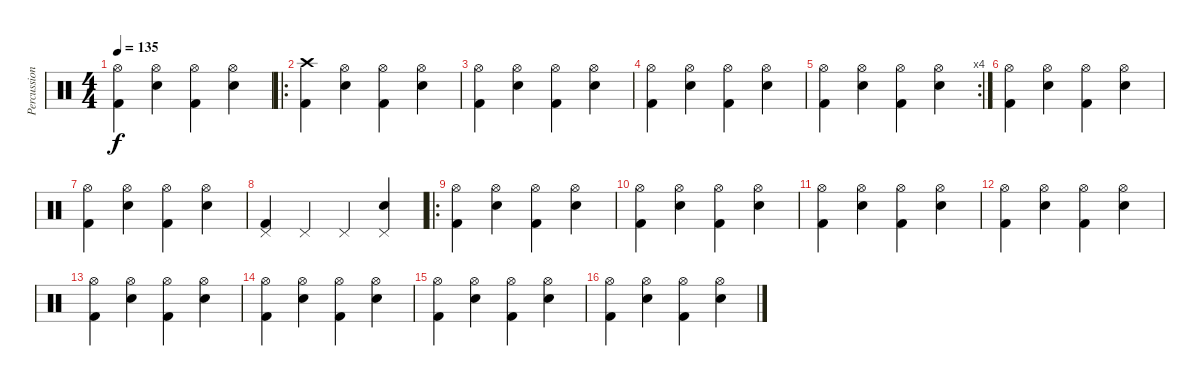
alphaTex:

\track ("Percussion" "Percussion") {instrument percussion}
\staff {score}
\articulation defaults
\ts (4 4)
\tempo 135
\clef neutral
\ks c
("Hi-Hat (open)" "Kick (hit) 2").4{dy f} ("Hi-Hat (open)" "Electric Snare (hit)").4 ("Hi-Hat (open)" "Kick (hit) 2").4 ("Hi-Hat (open)" "Electric Snare (hit)").4 |
\ro
("Crash high (hit)" "Kick (hit) 2").4 ("Hi-Hat (open)" "Electric Snare (hit)").4 ("Hi-Hat (open)" "Kick (hit) 2").4 ("Hi-Hat (open)" "Electric Snare (hit)").4 |
("Hi-Hat (open)" "Kick (hit) 2").4 ("Hi-Hat (open)" "Electric Snare (hit)").4 ("Hi-Hat (open)" "Kick (hit) 2").4 ("Hi-Hat (open)" "Electric Snare (hit)").4 |
("Hi-Hat (open)" "Kick (hit) 2").4 ("Hi-Hat (open)" "Electric Snare (hit)").4 ("Hi-Hat (open)" "Kick (hit) 2").4 ("Hi-Hat (open)" "Electric Snare (hit)").4 |
\rc 4
("Hi-Hat (open)" "Kick (hit) 2").4 ("Hi-Hat (open)" "Electric Snare (hit)").4 ("Hi-Hat (open)" "Kick (hit) 2").4 ("Hi-Hat (open)" "Electric Snare (hit)").4 |
("Hi-Hat (open)" "Kick (hit) 2").4 ("Hi-Hat (open)" "Electric Snare (hit)").4 ("Hi-Hat (open)" "Kick (hit) 2").4 ("Hi-Hat (open)" "Electric Snare (hit)").4 |
("Hi-Hat (open)" "Kick (hit) 2").4 ("Hi-Hat (open)" "Electric Snare (hit)").4 ("Hi-Hat (open)" "Kick (hit) 2").4 ("Hi-Hat (open)" "Electric Snare (hit)").4 |
("Pedal Hi-Hat (hit)" "Kick (hit) 2").4 "Pedal Hi-Hat (hit)".4 "Pedal Hi-Hat (hit)".4 ("Pedal Hi-Hat (hit)" "Electric Snare (hit)").4 |
\ro
("Hi-Hat (open)" "Kick (hit) 2").4 ("Hi-Hat (open)" "Electric Snare (hit)").4 ("Hi-Hat (open)" "Kick (hit) 2").4 ("Hi-Hat (open)" "Electric Snare (hit)").4 |
("Hi-Hat (open)" "Kick (hit) 2").4 ("Hi-Hat (open)" "Electric Snare (hit)").4 ("Hi-Hat (open)" "Kick (hit) 2").4 ("Hi-Hat (open)" "Electric Snare (hit)").4 |
("Hi-Hat (open)" "Kick (hit) 2").4 ("Hi-Hat (open)" "Electric Snare (hit)").4 ("Hi-Hat (open)" "Kick (hit) 2").4 ("Hi-Hat (open)" "Electric Snare (hit)").4 |
("Hi-Hat (open)" "Kick (hit) 2").4 ("Hi-Hat (open)" "Electric Snare (hit)").4 ("Hi-Hat (open)" "Kick (hit) 2").4 ("Hi-Hat (open)" "Electric Snare (hit)").4 |
("Hi-Hat (open)" "Kick (hit) 2").4 ("Hi-Hat (open)" "Electric Snare (hit)").4 ("Hi-Hat (open)" "Kick (hit) 2").4 ("Hi-Hat (open)" "Electric Snare (hit)").4 |
("Hi-Hat (open)" "Kick (hit) 2").4 ("Hi-Hat (open)" "Electric Snare (hit)").4 ("Hi-Hat (open)" "Kick (hit) 2").4 ("Hi-Hat (open)" "Electric Snare (hit)").4 |
("Hi-Hat (open)" "Kick (hit) 2").4 ("Hi-Hat (open)" "Electric Snare (hit)").4 ("Hi-Hat (open)" "Kick (hit) 2").4 ("Hi-Hat (open)" "Electric Snare (hit)").4 |
("Hi-Hat (open)" "Kick (hit) 2").4 ("Hi-Hat (open)" "Electric Snare (hit)").4 ("Hi-Hat (open)" "Kick (hit) 2").4 ("Hi-Hat (open)" "Electric Snare (hit)").4
